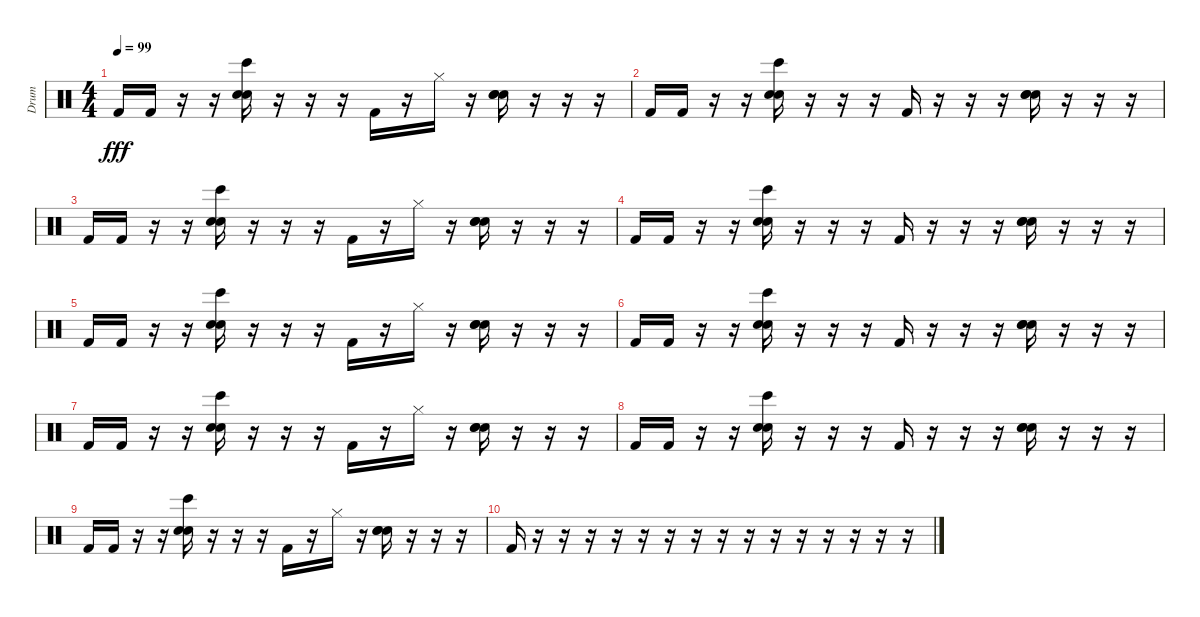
\track ("Drum" "Drum") {instrument percussion}
\staff {score}
\articulation defaults
\ts (4 4)
\tempo 99
\clef neutral
\ks c "Kick (hit) 2".16{dy fff} "Kick (hit) 2".16
r.16 r.16 ("Electric Snare (hit)" "Bongo High (hit)" "Hand Clap (hit)").16 r.16 r.16 r.16 "Kick (hit) 2".16 r.16 "Hi-Hat (closed)".16 r.16 ("Electric Snare (hit)" "Hand Clap (hit)" "Hand Clap (hit)").16 r.16 r.16 r.16 |
"Kick (hit) 2".16 "Kick (hit) 2".16 r.16 r.16 ("Electric Snare (hit)" "Bongo High (hit)" "Hand Clap (hit)").16 r.16 r.16 r.16 "Kick (hit) 2".16 r.16 r.16 r.16 ("Electric Snare (hit)" "Hand Clap (hit)" "Hand Clap (hit)").16 r.16 r.16 r.16 |
"Kick (hit) 2".16 "Kick (hit) 2".16 r.16 r.16 ("Electric Snare (hit)" "Bongo High (hit)" "Hand Clap (hit)").16 r.16 r.16 r.16 "Kick (hit) 2".16 r.16 "Hi-Hat (closed)".16 r.16 ("Electric Snare (hit)" "Hand Clap (hit)" "Hand Clap (hit)").16 r.16 r.16 r.16 |
"Kick (hit) 2".16 "Kick (hit) 2".16 r.16 r.16 ("Electric Snare (hit)" "Bongo High (hit)" "Hand Clap (hit)").16 r.16 r.16 r.16 "Kick (hit) 2".16 r.16 r.16 r.16 ("Electric Snare (hit)" "Hand Clap (hit)" "Hand Clap (hit)").16 r.16 r.16 r.16 |
"Kick (hit) 2".16 "Kick (hit) 2".16 r.16 r.16 ("Electric Snare (hit)" "Bongo High (hit)" "Hand Clap (hit)").16 r.16 r.16 r.16 "Kick (hit) 2".16 r.16 "Hi-Hat (closed)".16 r.16 ("Electric Snare (hit)" "Hand Clap (hit)" "Hand Clap (hit)").16 r.16 r.16 r.16 |
"Kick (hit) 2".16 "Kick (hit) 2".16 r.16 r.16 ("Electric Snare (hit)" "Bongo High (hit)" "Hand Clap (hit)").16 r.16 r.16 r.16 "Kick (hit) 2".16 r.16 r.16 r.16 ("Electric Snare (hit)" "Hand Clap (hit)" "Hand Clap (hit)").16 r.16 r.16 r.16 |
"Kick (hit) 2".16 "Kick (hit) 2".16 r.16 r.16 ("Electric Snare (hit)" "Bongo High (hit)" "Hand Clap (hit)").16 r.16 r.16 r.16 "Kick (hit) 2".16 r.16 "Hi-Hat (closed)".16 r.16 ("Electric Snare (hit)" "Hand Clap (hit)" "Hand Clap (hit)").16 r.16 r.16 r.16 |
"Kick (hit) 2".16 "Kick (hit) 2".16 r.16 r.16 ("Electric Snare (hit)" "Bongo High (hit)" "Hand Clap (hit)").16 r.16 r.16 r.16 "Kick (hit) 2".16 r.16 r.16 r.16 ("Electric Snare (hit)" "Hand Clap (hit)" "Hand Clap (hit)").16 r.16 r.16 r.16 |
"Kick (hit) 2".16 "Kick (hit) 2".16 r.16 r.16 ("Electric Snare (hit)" "Bongo High (hit)" "Hand Clap (hit)").16 r.16 r.16 r.16 "Kick (hit) 2".16 r.16 "Hi-Hat (closed)".16 r.16 ("Electric Snare (hit)" "Hand Clap (hit)" "Hand Clap (hit)").16 r.16 r.16 r.16 |
"Kick (hit) 2".16 r.16 r.16 r.16 r.16 r.16 r.16 r.16 r.16 r.16 r.16 r.16 r.16 r.16 r.16 r.16
